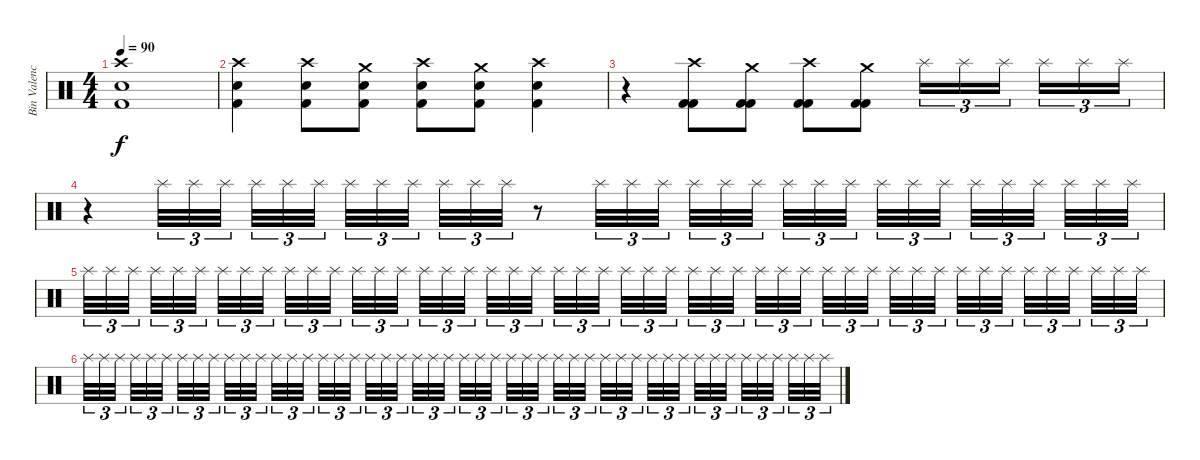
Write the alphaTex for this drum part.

\track ("Bin Valencia" "Bin Valenc") {instrument percussion}
\staff {score}
\articulation defaults
\ts (4 4)
\tempo 90
\clef neutral
\ks c
("Crash high (hit)" "Snare (hit) 2" "Kick (hit) 2").1{dy f} |
("Crash high (hit)" "Snare (hit) 2" "Kick (hit) 2").4 ("Crash high (hit)" "Snare (hit) 2" "Kick (hit) 2").8 ("Crash medium (hit)" "Snare (hit) 2" "Kick (hit) 2").8 ("Crash high (hit)" "Snare (hit) 2" "Kick (hit) 2").8 ("Crash medium (hit)" "Snare (hit) 2" "Kick (hit) 2").8 ("Crash high (hit)" "Snare (hit) 2" "Kick (hit) 2").4 |
r.4 ("Crash high (hit)" "Kick (hit) 2" "Kick (hit) 2").8 ("Crash medium (hit)" "Kick (hit) 2" "Kick (hit) 2").8 ("Crash high (hit)" "Kick (hit) 2" "Kick (hit) 2").8 ("Crash medium (hit)" "Kick (hit) 2" "Kick (hit) 2").8 "Splash (hit)".16{tu (3 2)} "Splash (hit)".16{tu (3 2)} "Splash (hit)".16{tu (3 2)} "Splash (hit)".16{tu (3 2)} "Splash (hit)".16{tu (3 2)} "Splash (hit)".16{tu (3 2)} |
r.4 "Splash (hit)".32{tu (3 2)} "Splash (hit)".32{tu (3 2)} "Splash (hit)".32{tu (3 2)} "Splash (hit)".32{tu (3 2)} "Splash (hit)".32{tu (3 2)} "Splash (hit)".32{tu (3 2)} "Splash (hit)".32{tu (3 2)} "Splash (hit)".32{tu (3 2)} "Splash (hit)".32{tu (3 2)} "Splash (hit)".32{tu (3 2)} "Splash (hit)".32{tu (3 2)} "Splash (hit)".32{tu (3 2)} r.8 "Splash (hit)".32{tu (3 2)} "Splash (hit)".32{tu (3 2)} "Splash (hit)".32{tu (3 2)} "Splash (hit)".32{tu (3 2)} "Splash (hit)".32{tu (3 2)} "Splash (hit)".32{tu (3 2)} "Splash (hit)".32{tu (3 2)} "Splash (hit)".32{tu (3 2)} "Splash (hit)".32{tu (3 2)} "Splash (hit)".32{tu (3 2)} "Splash (hit)".32{tu (3 2)} "Splash (hit)".32{tu (3 2)} "Splash (hit)".32{tu (3 2)} "Splash (hit)".32{tu (3 2)} "Splash (hit)".32{tu (3 2)} "Splash (hit)".32{tu (3 2)} "Splash (hit)".32{tu (3 2)} "Splash (hit)".32{tu (3 2)} |
"Splash (hit)".32{tu (3 2) volume 0} "Splash (hit)".32{tu (3 2)} "Splash (hit)".32{tu (3 2)} "Splash (hit)".32{tu (3 2)} "Splash (hit)".32{tu (3 2)} "Splash (hit)".32{tu (3 2)} "Splash (hit)".32{tu (3 2)} "Splash (hit)".32{tu (3 2)} "Splash (hit)".32{tu (3 2)} "Splash (hit)".32{tu (3 2)} "Splash (hit)".32{tu (3 2)} "Splash (hit)".32{tu (3 2)} "Splash (hit)".32{tu (3 2)} "Splash (hit)".32{tu (3 2)} "Splash (hit)".32{tu (3 2)} "Splash (hit)".32{tu (3 2)} "Splash (hit)".32{tu (3 2)} "Splash (hit)".32{tu (3 2)} "Splash (hit)".32{tu (3 2)} "Splash (hit)".32{tu (3 2)} "Splash (hit)".32{tu (3 2)} "Splash (hit)".32{tu (3 2)} "Splash (hit)".32{tu (3 2)} "Splash (hit)".32{tu (3 2)} "Splash (hit)".32{tu (3 2)} "Splash (hit)".32{tu (3 2)} "Splash (hit)".32{tu (3 2)} "Splash (hit)".32{tu (3 2)} "Splash (hit)".32{tu (3 2)} "Splash (hit)".32{tu (3 2)} "Splash (hit)".32{tu (3 2)} "Splash (hit)".32{tu (3 2)} "Splash (hit)".32{tu (3 2)} "Splash (hit)".32{tu (3 2)} "Splash (hit)".32{tu (3 2)} "Splash (hit)".32{tu (3 2)} "Splash (hit)".32{tu (3 2)} "Splash (hit)".32{tu (3 2)} "Splash (hit)".32{tu (3 2)} "Splash (hit)".32{tu (3 2)} "Splash (hit)".32{tu (3 2)} "Splash (hit)".32{tu (3 2)} "Splash (hit)".32{tu (3 2)} "Splash (hit)".32{tu (3 2)} "Splash (hit)".32{tu (3 2)} "Splash (hit)".32{tu (3 2)} "Splash (hit)".32{tu (3 2)} "Splash (hit)".32{tu (3 2)} |
"Splash (hit)".32{tu (3 2)} "Splash (hit)".32{tu (3 2)} "Splash (hit)".32{tu (3 2)} "Splash (hit)".32{tu (3 2)} "Splash (hit)".32{tu (3 2)} "Splash (hit)".32{tu (3 2)} "Splash (hit)".32{tu (3 2)} "Splash (hit)".32{tu (3 2)} "Splash (hit)".32{tu (3 2)} "Splash (hit)".32{tu (3 2)} "Splash (hit)".32{tu (3 2)} "Splash (hit)".32{tu (3 2)} "Splash (hit)".32{tu (3 2)} "Splash (hit)".32{tu (3 2)} "Splash (hit)".32{tu (3 2)} "Splash (hit)".32{tu (3 2)} "Splash (hit)".32{tu (3 2)} "Splash (hit)".32{tu (3 2)} "Splash (hit)".32{tu (3 2)} "Splash (hit)".32{tu (3 2)} "Splash (hit)".32{tu (3 2)} "Splash (hit)".32{tu (3 2)} "Splash (hit)".32{tu (3 2)} "Splash (hit)".32{tu (3 2)} "Splash (hit)".32{tu (3 2)} "Splash (hit)".32{tu (3 2)} "Splash (hit)".32{tu (3 2)} "Splash (hit)".32{tu (3 2)} "Splash (hit)".32{tu (3 2)} "Splash (hit)".32{tu (3 2)} "Splash (hit)".32{tu (3 2)} "Splash (hit)".32{tu (3 2)} "Splash (hit)".32{tu (3 2)} "Splash (hit)".32{tu (3 2)} "Splash (hit)".32{tu (3 2)} "Splash (hit)".32{tu (3 2)} "Splash (hit)".32{tu (3 2)} "Splash (hit)".32{tu (3 2)} "Splash (hit)".32{tu (3 2)} "Splash (hit)".32{tu (3 2)} "Splash (hit)".32{tu (3 2)} "Splash (hit)".32{tu (3 2)} "Splash (hit)".32{tu (3 2)} "Splash (hit)".32{tu (3 2)} "Splash (hit)".32{tu (3 2)} "Splash (hit)".32{tu (3 2)} "Splash (hit)".32{tu (3 2)} "Splash (hit)".32{tu (3 2)}
